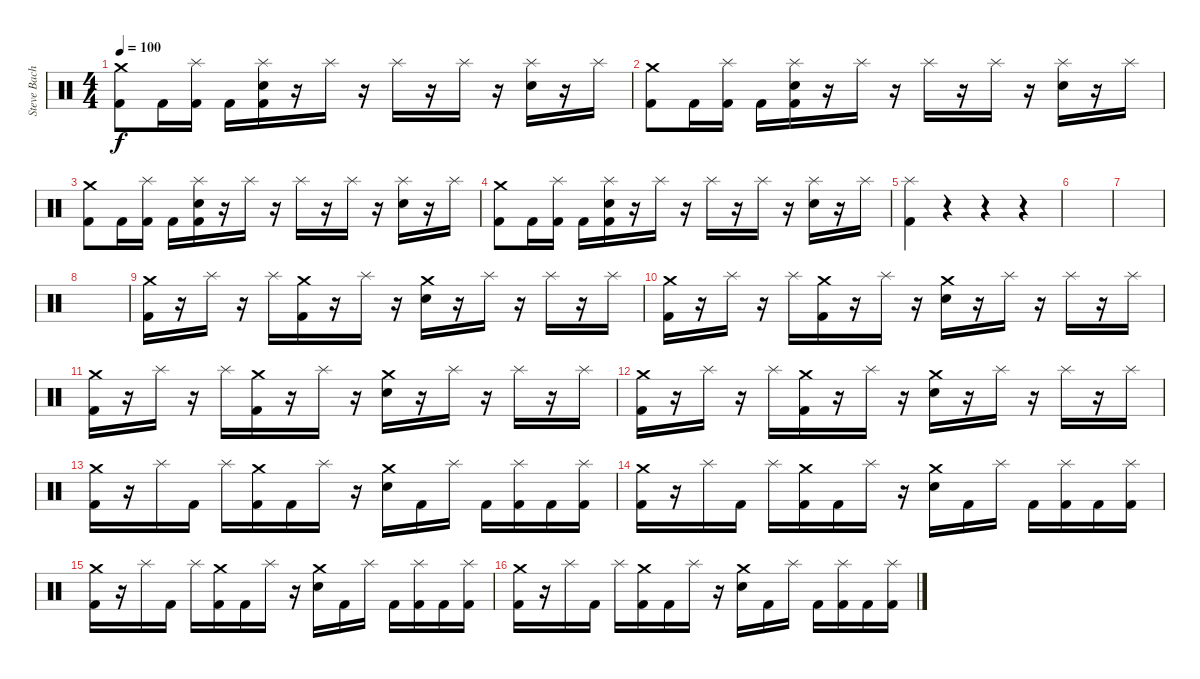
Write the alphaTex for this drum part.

\track ("Steve Bache" "Steve Bach") {instrument percussion}
\staff {score}
\articulation defaults
\ts (4 4)
\tempo 100
\clef neutral
\ks c
("Crash medium (hit)" "Kick (hit) 2").8{dy f} "Kick (hit) 2".16 ("Splash (hit)" "Kick (hit) 2").16 "Kick (hit) 2".16 ("Splash (hit)" "Electric Snare (hit)" "Kick (hit) 2").16 r.16 "Splash (hit)".16 r.16 "Splash (hit)".16 r.16 "Splash (hit)".16 r.16 ("Splash (hit)" "Electric Snare (hit)").16 r.16 "Splash (hit)".16 |
("Crash medium (hit)" "Kick (hit) 2").8 "Kick (hit) 2".16 ("Splash (hit)" "Kick (hit) 2").16 "Kick (hit) 2".16 ("Splash (hit)" "Electric Snare (hit)" "Kick (hit) 2").16 r.16 "Splash (hit)".16 r.16 "Splash (hit)".16 r.16 "Splash (hit)".16 r.16 ("Splash (hit)" "Electric Snare (hit)").16 r.16 "Splash (hit)".16 |
("Crash medium (hit)" "Kick (hit) 2").8 "Kick (hit) 2".16 ("Splash (hit)" "Kick (hit) 2").16 "Kick (hit) 2".16 ("Splash (hit)" "Electric Snare (hit)" "Kick (hit) 2").16 r.16 "Splash (hit)".16 r.16 "Splash (hit)".16 r.16 "Splash (hit)".16 r.16 ("Splash (hit)" "Electric Snare (hit)").16 r.16 "Splash (hit)".16 |
("Crash medium (hit)" "Kick (hit) 2").8 "Kick (hit) 2".16 ("Splash (hit)" "Kick (hit) 2").16 "Kick (hit) 2".16 ("Splash (hit)" "Electric Snare (hit)" "Kick (hit) 2").16 r.16 "Splash (hit)".16 r.16 "Splash (hit)".16 r.16 "Splash (hit)".16 r.16 ("Splash (hit)" "Electric Snare (hit)").16 r.16 "Splash (hit)".16 |
("Splash (hit)" "Kick (hit) 2").4 r.4 r.4 r.4 |
|
|
|
("Crash medium (hit)" "Kick (hit) 2").16 r.16 "Splash (hit)".16 r.16 "Splash (hit)".16 ("Crash medium (hit)" "Kick (hit) 2").16 r.16 "Splash (hit)".16 r.16 ("Crash medium (hit)" "Electric Snare (hit)").16 r.16 "Splash (hit)".16 r.16 "Splash (hit)".16 r.16 "Splash (hit)".16 |
("Crash medium (hit)" "Kick (hit) 2").16 r.16 "Splash (hit)".16 r.16 "Splash (hit)".16 ("Crash medium (hit)" "Kick (hit) 2").16 r.16 "Splash (hit)".16 r.16 ("Crash medium (hit)" "Electric Snare (hit)").16 r.16 "Splash (hit)".16 r.16 "Splash (hit)".16 r.16 "Splash (hit)".16 |
("Crash medium (hit)" "Kick (hit) 2").16 r.16 "Splash (hit)".16 r.16 "Splash (hit)".16 ("Crash medium (hit)" "Kick (hit) 2").16 r.16 "Splash (hit)".16 r.16 ("Crash medium (hit)" "Electric Snare (hit)").16 r.16 "Splash (hit)".16 r.16 "Splash (hit)".16 r.16 "Splash (hit)".16 |
("Crash medium (hit)" "Kick (hit) 2").16 r.16 "Splash (hit)".16 r.16 "Splash (hit)".16 ("Crash medium (hit)" "Kick (hit) 2").16 r.16 "Splash (hit)".16 r.16 ("Crash medium (hit)" "Electric Snare (hit)").16 r.16 "Splash (hit)".16 r.16 "Splash (hit)".16 r.16 "Splash (hit)".16 |
("Crash medium (hit)" "Kick (hit) 2").16 r.16 "Splash (hit)".16 "Kick (hit) 2".16 "Splash (hit)".16 ("Crash medium (hit)" "Kick (hit) 2").16 "Kick (hit) 2".16 "Splash (hit)".16 r.16 ("Crash medium (hit)" "Electric Snare (hit)").16 "Kick (hit) 2".16 "Splash (hit)".16 "Kick (hit) 2".16 ("Splash (hit)" "Kick (hit) 2").16 "Kick (hit) 2".16 ("Splash (hit)" "Kick (hit) 2").16 |
("Crash medium (hit)" "Kick (hit) 2").16 r.16 "Splash (hit)".16 "Kick (hit) 2".16 "Splash (hit)".16 ("Crash medium (hit)" "Kick (hit) 2").16 "Kick (hit) 2".16 "Splash (hit)".16 r.16 ("Crash medium (hit)" "Electric Snare (hit)").16 "Kick (hit) 2".16 "Splash (hit)".16 "Kick (hit) 2".16 ("Splash (hit)" "Kick (hit) 2").16 "Kick (hit) 2".16 ("Splash (hit)" "Kick (hit) 2").16 |
("Crash medium (hit)" "Kick (hit) 2").16 r.16 "Splash (hit)".16 "Kick (hit) 2".16 "Splash (hit)".16 ("Crash medium (hit)" "Kick (hit) 2").16 "Kick (hit) 2".16 "Splash (hit)".16 r.16 ("Crash medium (hit)" "Electric Snare (hit)").16 "Kick (hit) 2".16 "Splash (hit)".16 "Kick (hit) 2".16 ("Splash (hit)" "Kick (hit) 2").16 "Kick (hit) 2".16 ("Splash (hit)" "Kick (hit) 2").16 |
("Crash medium (hit)" "Kick (hit) 2").16 r.16 "Splash (hit)".16 "Kick (hit) 2".16 "Splash (hit)".16 ("Crash medium (hit)" "Kick (hit) 2").16 "Kick (hit) 2".16 "Splash (hit)".16 r.16 ("Crash medium (hit)" "Electric Snare (hit)").16 "Kick (hit) 2".16 "Splash (hit)".16 "Kick (hit) 2".16 ("Splash (hit)" "Kick (hit) 2").16 "Kick (hit) 2".16 ("Splash (hit)" "Kick (hit) 2").16
